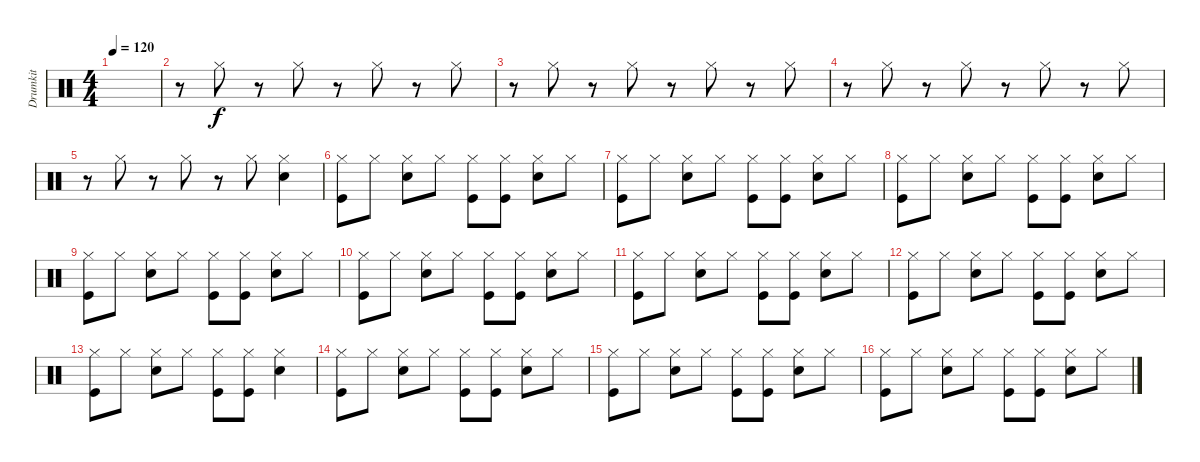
\track ("Drumkit" "Drumkit") {instrument percussion}
\staff {score}
\articulation defaults
\ts (4 4)
\tempo 120
\clef neutral
\ks c
|
r.8 "Hi-Hat (closed)".8 r.8 "Hi-Hat (closed)".8 r.8 "Hi-Hat (closed)".8 r.8 "Hi-Hat (closed)".8 |
r.8 "Hi-Hat (closed)".8 r.8 "Hi-Hat (closed)".8 r.8 "Hi-Hat (closed)".8 r.8 "Hi-Hat (closed)".8 |
r.8 "Hi-Hat (closed)".8 r.8 "Hi-Hat (closed)".8 r.8 "Hi-Hat (closed)".8 r.8 "Hi-Hat (closed)".8 |
r.8 "Hi-Hat (closed)".8 r.8 "Hi-Hat (closed)".8 r.8 "Hi-Hat (closed)".8 ("Snare (hit) 2" "Hi-Hat (closed)").4 |
("Hi-Hat (closed)" "Kick (hit)").8 "Hi-Hat (closed)".8 ("Snare (hit) 2" "Hi-Hat (closed)").8 "Hi-Hat (closed)".8 ("Hi-Hat (closed)" "Kick (hit)").8 ("Hi-Hat (closed)" "Kick (hit)").8 ("Snare (hit) 2" "Hi-Hat (closed)").8 "Hi-Hat (closed)".8 |
("Hi-Hat (closed)" "Kick (hit)").8 "Hi-Hat (closed)".8 ("Snare (hit) 2" "Hi-Hat (closed)").8 "Hi-Hat (closed)".8 ("Hi-Hat (closed)" "Kick (hit)").8 ("Hi-Hat (closed)" "Kick (hit)").8 ("Snare (hit) 2" "Hi-Hat (closed)").8 "Hi-Hat (closed)".8 |
("Hi-Hat (closed)" "Kick (hit)").8 "Hi-Hat (closed)".8 ("Snare (hit) 2" "Hi-Hat (closed)").8 "Hi-Hat (closed)".8 ("Hi-Hat (closed)" "Kick (hit)").8 ("Hi-Hat (closed)" "Kick (hit)").8 ("Snare (hit) 2" "Hi-Hat (closed)").8 "Hi-Hat (closed)".8 |
("Hi-Hat (closed)" "Kick (hit)").8 "Hi-Hat (closed)".8 ("Snare (hit) 2" "Hi-Hat (closed)").8 "Hi-Hat (closed)".8 ("Hi-Hat (closed)" "Kick (hit)").8 ("Hi-Hat (closed)" "Kick (hit)").8 ("Snare (hit) 2" "Hi-Hat (closed)").8 "Hi-Hat (closed)".8 |
("Hi-Hat (closed)" "Kick (hit)").8 "Hi-Hat (closed)".8 ("Snare (hit) 2" "Hi-Hat (closed)").8 "Hi-Hat (closed)".8 ("Hi-Hat (closed)" "Kick (hit)").8 ("Hi-Hat (closed)" "Kick (hit)").8 ("Snare (hit) 2" "Hi-Hat (closed)").8 "Hi-Hat (closed)".8 |
("Hi-Hat (closed)" "Kick (hit)").8 "Hi-Hat (closed)".8 ("Snare (hit) 2" "Hi-Hat (closed)").8 "Hi-Hat (closed)".8 ("Hi-Hat (closed)" "Kick (hit)").8 ("Hi-Hat (closed)" "Kick (hit)").8 ("Snare (hit) 2" "Hi-Hat (closed)").8 "Hi-Hat (closed)".8 |
("Hi-Hat (closed)" "Kick (hit)").8 "Hi-Hat (closed)".8 ("Snare (hit) 2" "Hi-Hat (closed)").8 "Hi-Hat (closed)".8 ("Hi-Hat (closed)" "Kick (hit)").8 ("Hi-Hat (closed)" "Kick (hit)").8 ("Snare (hit) 2" "Hi-Hat (closed)").8 "Hi-Hat (closed)".8 |
("Hi-Hat (closed)" "Kick (hit)").8 "Hi-Hat (closed)".8 ("Snare (hit) 2" "Hi-Hat (closed)").8 "Hi-Hat (closed)".8 ("Hi-Hat (closed)" "Kick (hit)").8 ("Hi-Hat (closed)" "Kick (hit)").8 ("Snare (hit) 2" "Hi-Hat (closed)").4 |
("Hi-Hat (closed)" "Kick (hit)").8 "Hi-Hat (closed)".8 ("Snare (hit) 2" "Hi-Hat (closed)").8 "Hi-Hat (closed)".8 ("Hi-Hat (closed)" "Kick (hit)").8 ("Hi-Hat (closed)" "Kick (hit)").8 ("Snare (hit) 2" "Hi-Hat (closed)").8 "Hi-Hat (closed)".8 |
("Hi-Hat (closed)" "Kick (hit)").8 "Hi-Hat (closed)".8 ("Snare (hit) 2" "Hi-Hat (closed)").8 "Hi-Hat (closed)".8 ("Hi-Hat (closed)" "Kick (hit)").8 ("Hi-Hat (closed)" "Kick (hit)").8 ("Snare (hit) 2" "Hi-Hat (closed)").8 "Hi-Hat (closed)".8 |
("Hi-Hat (closed)" "Kick (hit)").8 "Hi-Hat (closed)".8 ("Snare (hit) 2" "Hi-Hat (closed)").8 "Hi-Hat (closed)".8 ("Hi-Hat (closed)" "Kick (hit)").8 ("Hi-Hat (closed)" "Kick (hit)").8 ("Snare (hit) 2" "Hi-Hat (closed)").8 "Hi-Hat (closed)".8
